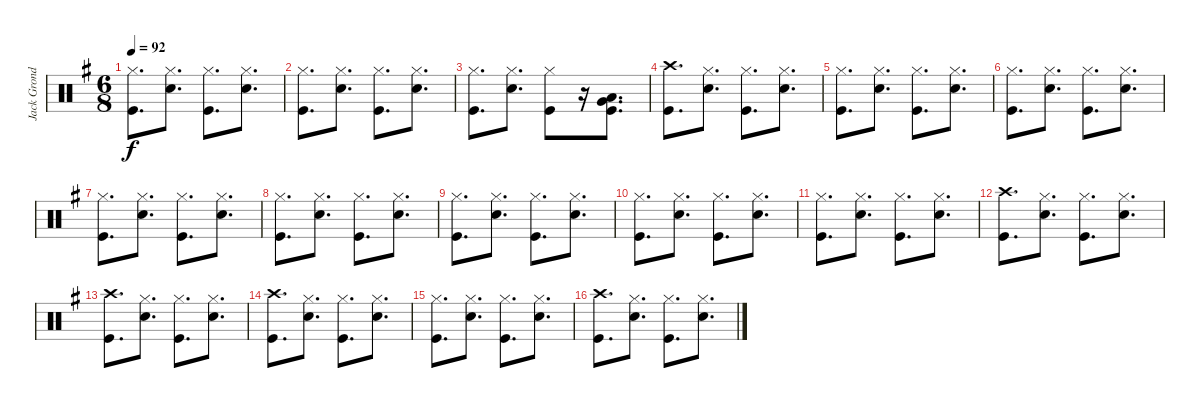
\track ("Jack Grondin Drums" "Jack Grond") {instrument percussion}
\staff {score}
\articulation defaults
\ts (6 8)
\tempo 92
\clef neutral
\ks g
("Hi-Hat (closed)" "Kick (hit)").8{d dy f} ("Hi-Hat (closed)" "Snare (hit) 2").8{d} ("Hi-Hat (closed)" "Kick (hit)").8{d} ("Hi-Hat (closed)" "Snare (hit) 2").8{d} |
("Hi-Hat (closed)" "Kick (hit)").8{d} ("Hi-Hat (closed)" "Snare (hit) 2").8{d} ("Hi-Hat (closed)" "Kick (hit)").8{d} ("Hi-Hat (closed)" "Snare (hit) 2").8{d} |
("Hi-Hat (closed)" "Kick (hit)").8{d} ("Hi-Hat (closed)" "Snare (hit) 2").8{d} ("Hi-Hat (closed)" "Kick (hit)").8 r.16 ("Very Low Tom (hit)" "Low Floor Tom (hit)" "Kick (hit)").8{d} |
("Crash high (hit)" "Kick (hit)").8{d} ("Hi-Hat (closed)" "Snare (hit) 2").8{d} ("Hi-Hat (closed)" "Kick (hit)").8{d} ("Hi-Hat (closed)" "Snare (hit) 2").8{d} |
("Hi-Hat (closed)" "Kick (hit)").8{d} ("Hi-Hat (closed)" "Snare (hit) 2").8{d} ("Hi-Hat (closed)" "Kick (hit)").8{d} ("Hi-Hat (closed)" "Snare (hit) 2").8{d} |
("Hi-Hat (closed)" "Kick (hit)").8{d} ("Hi-Hat (closed)" "Snare (hit) 2").8{d} ("Hi-Hat (closed)" "Kick (hit)").8{d} ("Hi-Hat (closed)" "Snare (hit) 2").8{d} |
("Hi-Hat (closed)" "Kick (hit)").8{d} ("Hi-Hat (closed)" "Snare (hit) 2").8{d} ("Hi-Hat (closed)" "Kick (hit)").8{d} ("Hi-Hat (closed)" "Snare (hit) 2").8{d} |
("Hi-Hat (closed)" "Kick (hit)").8{d} ("Hi-Hat (closed)" "Snare (hit) 2").8{d} ("Hi-Hat (closed)" "Kick (hit)").8{d} ("Hi-Hat (closed)" "Snare (hit) 2").8{d} |
("Hi-Hat (closed)" "Kick (hit)").8{d} ("Hi-Hat (closed)" "Snare (hit) 2").8{d} ("Hi-Hat (closed)" "Kick (hit)").8{d} ("Hi-Hat (closed)" "Snare (hit) 2").8{d} |
("Hi-Hat (closed)" "Kick (hit)").8{d} ("Hi-Hat (closed)" "Snare (hit) 2").8{d} ("Hi-Hat (closed)" "Kick (hit)").8{d} ("Hi-Hat (closed)" "Snare (hit) 2").8{d} |
("Hi-Hat (closed)" "Kick (hit)").8{d} ("Hi-Hat (closed)" "Snare (hit) 2").8{d} ("Hi-Hat (closed)" "Kick (hit)").8{d} ("Hi-Hat (closed)" "Snare (hit) 2").8{d} |
("Crash high (hit)" "Kick (hit)").8{d} ("Hi-Hat (closed)" "Snare (hit) 2").8{d} ("Hi-Hat (closed)" "Kick (hit)").8{d} ("Hi-Hat (closed)" "Snare (hit) 2").8{d} |
("Crash high (hit)" "Kick (hit)").8{d} ("Hi-Hat (closed)" "Snare (hit) 2").8{d} ("Hi-Hat (closed)" "Kick (hit)").8{d} ("Hi-Hat (closed)" "Snare (hit) 2").8{d} |
("Crash high (hit)" "Kick (hit)").8{d} ("Hi-Hat (closed)" "Snare (hit) 2").8{d} ("Hi-Hat (closed)" "Kick (hit)").8{d} ("Hi-Hat (closed)" "Snare (hit) 2").8{d} |
("Hi-Hat (closed)" "Kick (hit)").8{d} ("Hi-Hat (closed)" "Snare (hit) 2").8{d} ("Hi-Hat (closed)" "Kick (hit)").8{d} ("Hi-Hat (closed)" "Snare (hit) 2").8{d} |
("Crash high (hit)" "Kick (hit)").8{d} ("Hi-Hat (closed)" "Snare (hit) 2").8{d} ("Hi-Hat (closed)" "Kick (hit)").8{d} ("Hi-Hat (closed)" "Snare (hit) 2").8{d}
